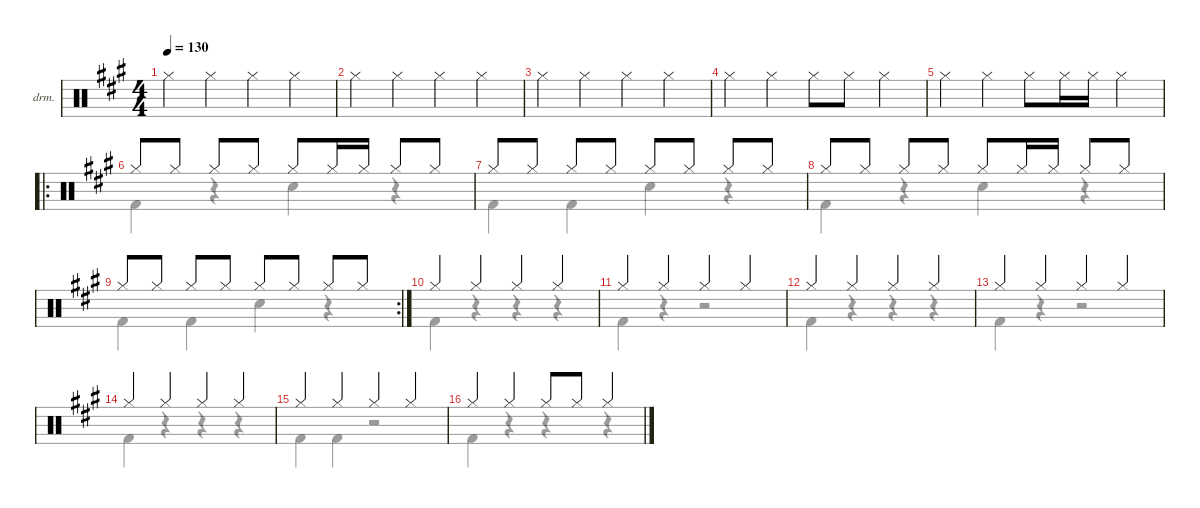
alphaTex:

\defaultSystemsLayout 4
\hideDynamics
\bracketExtendMode nobrackets
\firstSystemTrackNameOrientation horizontal
\otherSystemsTrackNameOrientation horizontal
\track ("  " "drm.") {instrument percussion}
\staff {score}
\articulation defaults
\voice
\ts (4 4)
\ac
\tempo 130
\clef neutral
\ks f#minor "Hi-Hat (closed)"{acc forcenatural}.4{dy mf beam Down} "Hi-Hat (closed)"{acc forcenatural}.4{beam Down} "Hi-Hat (closed)"{acc forcenatural}.4{beam Down} "Hi-Hat (closed)"{acc forcenatural}.4{beam Down}
|
"Hi-Hat (closed)"{acc forcenatural}.4{beam Down} "Hi-Hat (closed)"{acc forcenatural}.4{beam Down} "Hi-Hat (closed)"{acc forcenatural}.4{beam Down} "Hi-Hat (closed)"{acc forcenatural}.4{beam Down} |
"Hi-Hat (closed)"{acc forcenatural}.4{beam Down} "Hi-Hat (closed)"{acc forcenatural}.4{beam Down} "Hi-Hat (closed)"{acc forcenatural}.4{beam Down} "Hi-Hat (closed)"{acc forcenatural}.4{beam Down} |
"Hi-Hat (closed)"{acc forcenatural}.4{beam Down} "Hi-Hat (closed)"{acc forcenatural}.4{beam Down} "Hi-Hat (closed)"{acc forcenatural}.8{beam Down} "Hi-Hat (closed)"{acc forcenatural}.8{beam Down} "Hi-Hat (closed)"{acc forcenatural}.4{beam Down} |
"Hi-Hat (closed)"{acc forcenatural}.4{beam Down} "Hi-Hat (closed)"{acc forcenatural}.4{beam Down} "Hi-Hat (closed)"{acc forcenatural}.8{beam Down} "Hi-Hat (closed)"{acc forcenatural}.16{beam Down} "Hi-Hat (closed)"{acc forcenatural}.16{beam Down} "Hi-Hat (closed)"{acc forcenatural}.4{beam Down} |
\ro "Hi-Hat (closed)"{acc forcenatural}.8{beam Up} "Hi-Hat (closed)"{acc forcenatural}.8{beam Up} "Hi-Hat (closed)"{acc forcenatural}.8{beam Up} "Hi-Hat (closed)"{acc forcenatural}.8{beam Up} "Hi-Hat (closed)"{acc forcenatural}.8{beam Up} "Hi-Hat (closed)"{acc forcenatural}.16{beam Up} "Hi-Hat (closed)"{acc forcenatural}.16{beam Up} "Hi-Hat (closed)"{acc forcenatural}.8{beam Up} "Hi-Hat (closed)"{acc forcenatural}.8{beam Up}
|
"Hi-Hat (closed)"{acc forcenatural}.8{beam Up} "Hi-Hat (closed)"{acc forcenatural}.8{beam Up} "Hi-Hat (closed)"{acc forcenatural}.8{beam Up} "Hi-Hat (closed)"{acc forcenatural}.8{beam Up} "Hi-Hat (closed)"{acc forcenatural}.8{beam Up} "Hi-Hat (closed)"{acc forcenatural}.8{beam Up} "Hi-Hat (closed)"{acc forcenatural}.8{beam Up} "Hi-Hat (closed)"{acc forcenatural}.8{beam Up} |
"Hi-Hat (closed)"{acc forcenatural}.8{beam Up} "Hi-Hat (closed)"{acc forcenatural}.8{beam Up} "Hi-Hat (closed)"{acc forcenatural}.8{beam Up} "Hi-Hat (closed)"{acc forcenatural}.8{beam Up} "Hi-Hat (closed)"{acc forcenatural}.8{beam Up} "Hi-Hat (closed)"{acc forcenatural}.16{beam Up} "Hi-Hat (closed)"{acc forcenatural}.16{beam Up} "Hi-Hat (closed)"{acc forcenatural}.8{beam Up} "Hi-Hat (closed)"{acc forcenatural}.8{beam Up} |
\rc 2 "Hi-Hat (closed)"{acc forcenatural}.8{beam Up} "Hi-Hat (closed)"{acc forcenatural}.8{beam Up} "Hi-Hat (closed)"{acc forcenatural}.8{beam Up} "Hi-Hat (closed)"{acc forcenatural}.8{beam Up} "Hi-Hat (closed)"{acc forcenatural}.8{beam Up} "Hi-Hat (closed)"{acc forcenatural}.8{beam Up} "Hi-Hat (closed)"{acc forcenatural}.8{beam Up} "Hi-Hat (closed)"{acc forcenatural}.8{beam Up}
|
"Hi-Hat (closed)"{acc forcenatural}.4{beam Up} "Hi-Hat (closed)"{acc forcenatural}.4{beam Up} "Hi-Hat (closed)"{acc forcenatural}.4{beam Up} "Hi-Hat (closed)"{acc forcenatural}.4{beam Up} |
"Hi-Hat (closed)"{acc forcenatural}.4{beam Up} "Hi-Hat (closed)"{acc forcenatural}.4{beam Up} "Hi-Hat (closed)"{acc forcenatural}.4{beam Up} "Hi-Hat (closed)"{acc forcenatural}.4{beam Up} |
"Hi-Hat (closed)"{acc forcenatural}.4{beam Up} "Hi-Hat (closed)"{acc forcenatural}.4{beam Up} "Hi-Hat (closed)"{acc forcenatural}.4{beam Up} "Hi-Hat (closed)"{acc forcenatural}.4{beam Up} |
"Hi-Hat (closed)"{acc forcenatural}.4{beam Up} "Hi-Hat (closed)"{acc forcenatural}.4{beam Up} "Hi-Hat (closed)"{acc forcenatural}.4{beam Up} "Hi-Hat (closed)"{acc forcenatural}.4{beam Up} |
"Hi-Hat (closed)"{acc forcenatural}.4{beam Up} "Hi-Hat (closed)"{acc forcenatural}.4{beam Up} "Hi-Hat (closed)"{acc forcenatural}.4{beam Up} "Hi-Hat (closed)"{acc forcenatural}.4{beam Up} |
"Hi-Hat (closed)"{acc forcenatural}.4{beam Up} "Hi-Hat (closed)"{acc forcenatural}.4{beam Up} "Hi-Hat (closed)"{acc forcenatural}.4{beam Up} "Hi-Hat (closed)"{acc forcenatural}.4{beam Up} |
"Hi-Hat (closed)"{acc forcenatural}.4{beam Up} "Hi-Hat (closed)"{acc forcenatural}.4{beam Up} "Hi-Hat (closed)"{acc forcenatural}.8{beam Up} "Hi-Hat (closed)"{acc forcenatural}.8{beam Up} "Hi-Hat (closed)"{acc forcenatural}.4{beam Up}
\voice
\clef neutral
\ottava regular
\simile none
\ks f#minor
|
|
|
|
|
"Kick (hit) 2"{acc forcenatural}.4{beam Down} r.4{beam Down} "Snare (hit) 2"{acc forcenatural}.4{beam Down} r.4{beam Down} |
"Kick (hit) 2"{acc forcenatural}.4{beam Down} "Kick (hit) 2"{acc forcenatural}.4{beam Down} "Snare (hit) 2"{acc forcenatural}.4{beam Down} r.4{beam Down} |
"Kick (hit) 2"{acc forcenatural}.4{beam Down} r.4{beam Down} "Snare (hit) 2"{acc forcenatural}.4{beam Down} r.4{beam Down} |
"Kick (hit) 2"{acc forcenatural}.4{beam Down} "Kick (hit) 2"{acc forcenatural}.4{beam Down} "Snare (hit) 2"{acc forcenatural}.4{beam Down} r.4{beam Down} |
"Kick (hit) 2"{acc forcenatural}.4{beam Down} r.4{beam Down} r.4{beam Down} r.4{beam Down} |
"Kick (hit) 2"{acc forcenatural}.4{beam Down} r.4{beam Down} r.2{beam Down} |
"Kick (hit) 2"{acc forcenatural}.4{beam Down} r.4{beam Down} r.4{beam Down} r.4{beam Down} |
"Kick (hit) 2"{acc forcenatural}.4{beam Down} r.4{beam Down} r.2{beam Down} |
"Kick (hit) 2"{acc forcenatural}.4{beam Down} r.4{beam Down} r.4{beam Down} r.4{beam Down} |
"Kick (hit) 2"{acc forcenatural}.4{beam Down} "Kick (hit) 2"{acc forcenatural}.4{beam Down} r.2{beam Down} |
"Kick (hit) 2"{acc forcenatural}.4{beam Down} r.4{beam Down} r.4{beam Down} r.4{beam Down}
